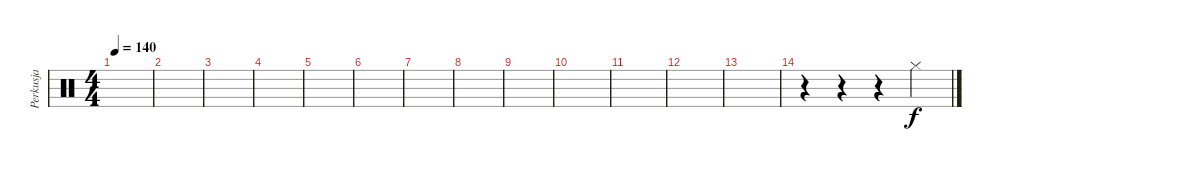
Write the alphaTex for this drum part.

\track ("Perkusja" "Perkusja") {instrument percussion}
\staff {score}
\articulation defaults
\ts (4 4)
\tempo 140
\clef neutral
\ks c
|
|
|
|
|
|
|
|
|
|
|
|
|
r.4 r.4 r.4 "Hi-Hat (closed)".4
